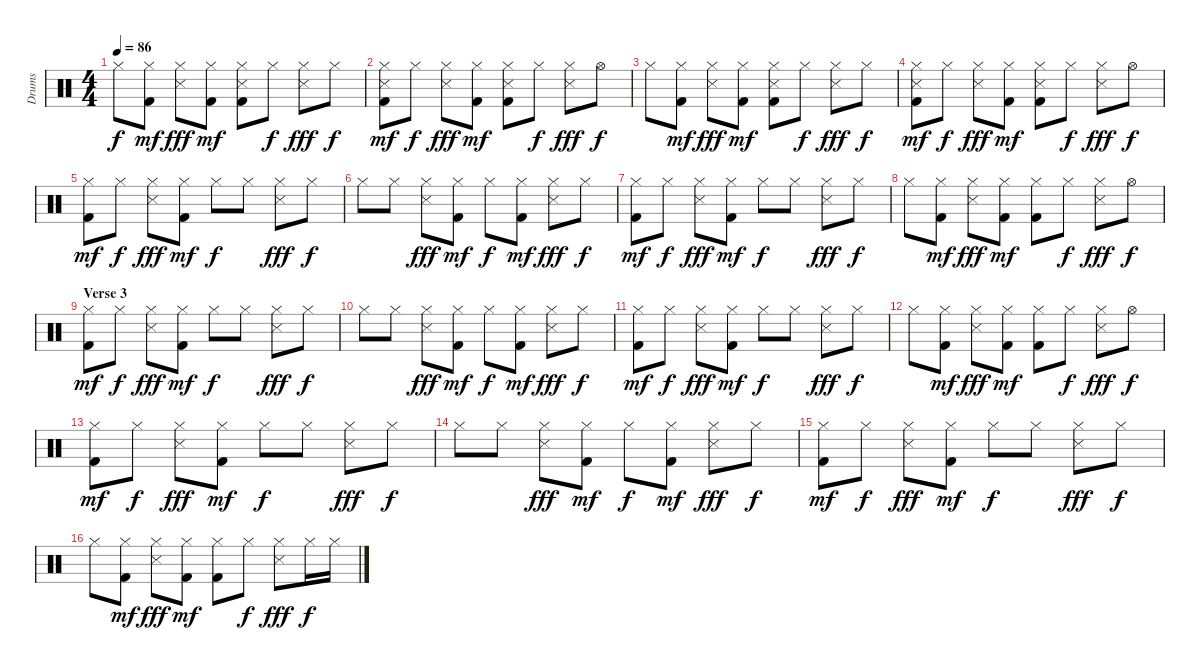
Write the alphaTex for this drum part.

\track ("Drums" "Drums") {instrument percussion}
\staff {score}
\articulation defaults
\ts (4 4)
\tempo 86
\clef neutral
\ks c "Hi-Hat (closed)".8{dy f}
("Hi-Hat (closed)" "Kick (hit) 2").8{dy mf} ("Hi-Hat (closed)" "Snare (side stick) 3").8{dy fff} ("Hi-Hat (closed)" "Kick (hit) 2").8{dy mf} ("Hi-Hat (closed)" "Snare (side stick) 3" "Kick (hit) 2").8 "Hi-Hat (closed)".8{dy f} ("Hi-Hat (closed)" "Snare (side stick) 3").8{dy fff} "Hi-Hat (closed)".8{dy f} |
("Hi-Hat (closed)" "Snare (side stick) 3" "Kick (hit) 2").8{dy mf} "Hi-Hat (closed)".8{dy f} ("Hi-Hat (closed)" "Snare (side stick) 3").8{dy fff} ("Hi-Hat (closed)" "Kick (hit) 2").8{dy mf} ("Hi-Hat (closed)" "Snare (side stick) 3" "Kick (hit) 2").8 "Hi-Hat (closed)".8{dy f} ("Hi-Hat (closed)" "Snare (side stick) 3").8{dy fff} "Hi-Hat (open)".8{dy f} |
"Hi-Hat (closed)".8 ("Hi-Hat (closed)" "Kick (hit) 2").8{dy mf} ("Hi-Hat (closed)" "Snare (side stick) 3").8{dy fff} ("Hi-Hat (closed)" "Kick (hit) 2").8{dy mf} ("Hi-Hat (closed)" "Snare (side stick) 3" "Kick (hit) 2").8 "Hi-Hat (closed)".8{dy f} ("Hi-Hat (closed)" "Snare (side stick) 3").8{dy fff} "Hi-Hat (closed)".8{dy f} |
("Hi-Hat (closed)" "Snare (side stick) 3" "Kick (hit) 2").8{dy mf} "Hi-Hat (closed)".8{dy f} ("Hi-Hat (closed)" "Snare (side stick) 3").8{dy fff} ("Hi-Hat (closed)" "Kick (hit) 2").8{dy mf} ("Hi-Hat (closed)" "Snare (side stick) 3" "Kick (hit) 2").8 "Hi-Hat (closed)".8{dy f} ("Hi-Hat (closed)" "Snare (side stick) 3").8{dy fff} "Hi-Hat (open)".8{dy f} |
("Hi-Hat (closed)" "Kick (hit) 2").8{dy mf} "Hi-Hat (closed)".8{dy f} ("Hi-Hat (closed)" "Snare (side stick) 3").8{dy fff} ("Hi-Hat (closed)" "Kick (hit) 2").8{dy mf} "Hi-Hat (closed)".8{dy f} "Hi-Hat (closed)".8 ("Hi-Hat (closed)" "Snare (side stick) 3").8{dy fff} "Hi-Hat (closed)".8{dy f} |
"Hi-Hat (closed)".8 "Hi-Hat (closed)".8 ("Hi-Hat (closed)" "Snare (side stick) 3").8{dy fff} ("Hi-Hat (closed)" "Kick (hit) 2").8{dy mf} "Hi-Hat (closed)".8{dy f} ("Hi-Hat (closed)" "Kick (hit) 2").8{dy mf} ("Hi-Hat (closed)" "Snare (side stick) 3").8{dy fff} "Hi-Hat (closed)".8{dy f} |
("Hi-Hat (closed)" "Kick (hit) 2").8{dy mf} "Hi-Hat (closed)".8{dy f} ("Hi-Hat (closed)" "Snare (side stick) 3").8{dy fff} ("Hi-Hat (closed)" "Kick (hit) 2").8{dy mf} "Hi-Hat (closed)".8{dy f} "Hi-Hat (closed)".8 ("Hi-Hat (closed)" "Snare (side stick) 3").8{dy fff} "Hi-Hat (closed)".8{dy f} |
"Hi-Hat (closed)".8 ("Hi-Hat (closed)" "Kick (hit) 2").8{dy mf} ("Hi-Hat (closed)" "Snare (side stick) 3").8{dy fff} ("Hi-Hat (closed)" "Kick (hit) 2").8{dy mf} ("Hi-Hat (closed)" "Kick (hit) 2").8 "Hi-Hat (closed)".8{dy f} ("Hi-Hat (closed)" "Snare (side stick) 3").8{dy fff} "Hi-Hat (open)".8{dy f} |
\section ("" "Verse 3")
("Hi-Hat (closed)" "Kick (hit) 2").8{dy mf} "Hi-Hat (closed)".8{dy f} ("Hi-Hat (closed)" "Snare (side stick) 3").8{dy fff} ("Hi-Hat (closed)" "Kick (hit) 2").8{dy mf} "Hi-Hat (closed)".8{dy f} "Hi-Hat (closed)".8 ("Hi-Hat (closed)" "Snare (side stick) 3").8{dy fff} "Hi-Hat (closed)".8{dy f} |
"Hi-Hat (closed)".8 "Hi-Hat (closed)".8 ("Hi-Hat (closed)" "Snare (side stick) 3").8{dy fff} ("Hi-Hat (closed)" "Kick (hit) 2").8{dy mf} "Hi-Hat (closed)".8{dy f} ("Hi-Hat (closed)" "Kick (hit) 2").8{dy mf} ("Hi-Hat (closed)" "Snare (side stick) 3").8{dy fff} "Hi-Hat (closed)".8{dy f} |
("Hi-Hat (closed)" "Kick (hit) 2").8{dy mf} "Hi-Hat (closed)".8{dy f} ("Hi-Hat (closed)" "Snare (side stick) 3").8{dy fff} ("Hi-Hat (closed)" "Kick (hit) 2").8{dy mf} "Hi-Hat (closed)".8{dy f} "Hi-Hat (closed)".8 ("Hi-Hat (closed)" "Snare (side stick) 3").8{dy fff} "Hi-Hat (closed)".8{dy f} |
"Hi-Hat (closed)".8 ("Hi-Hat (closed)" "Kick (hit) 2").8{dy mf} ("Hi-Hat (closed)" "Snare (side stick) 3").8{dy fff} ("Hi-Hat (closed)" "Kick (hit) 2").8{dy mf} ("Hi-Hat (closed)" "Kick (hit) 2").8 "Hi-Hat (closed)".8{dy f} ("Hi-Hat (closed)" "Snare (side stick) 3").8{dy fff} "Hi-Hat (open)".8{dy f} |
("Hi-Hat (closed)" "Kick (hit) 2").8{dy mf} "Hi-Hat (closed)".8{dy f} ("Hi-Hat (closed)" "Snare (side stick) 3").8{dy fff} ("Hi-Hat (closed)" "Kick (hit) 2").8{dy mf} "Hi-Hat (closed)".8{dy f} "Hi-Hat (closed)".8 ("Hi-Hat (closed)" "Snare (side stick) 3").8{dy fff} "Hi-Hat (closed)".8{dy f} |
"Hi-Hat (closed)".8 "Hi-Hat (closed)".8 ("Hi-Hat (closed)" "Snare (side stick) 3").8{dy fff} ("Hi-Hat (closed)" "Kick (hit) 2").8{dy mf} "Hi-Hat (closed)".8{dy f} ("Hi-Hat (closed)" "Kick (hit) 2").8{dy mf} ("Hi-Hat (closed)" "Snare (side stick) 3").8{dy fff} "Hi-Hat (closed)".8{dy f} |
("Hi-Hat (closed)" "Kick (hit) 2").8{dy mf} "Hi-Hat (closed)".8{dy f} ("Hi-Hat (closed)" "Snare (side stick) 3").8{dy fff} ("Hi-Hat (closed)" "Kick (hit) 2").8{dy mf} "Hi-Hat (closed)".8{dy f} "Hi-Hat (closed)".8 ("Hi-Hat (closed)" "Snare (side stick) 3").8{dy fff} "Hi-Hat (closed)".8{dy f} |
"Hi-Hat (closed)".8 ("Hi-Hat (closed)" "Kick (hit) 2").8{dy mf} ("Hi-Hat (closed)" "Snare (side stick) 3").8{dy fff} ("Hi-Hat (closed)" "Kick (hit) 2").8{dy mf} ("Hi-Hat (closed)" "Kick (hit) 2").8 "Hi-Hat (closed)".8{dy f} ("Hi-Hat (closed)" "Snare (side stick) 3").8{dy fff} "Hi-Hat (closed)".16{dy f} "Hi-Hat (closed)".16
